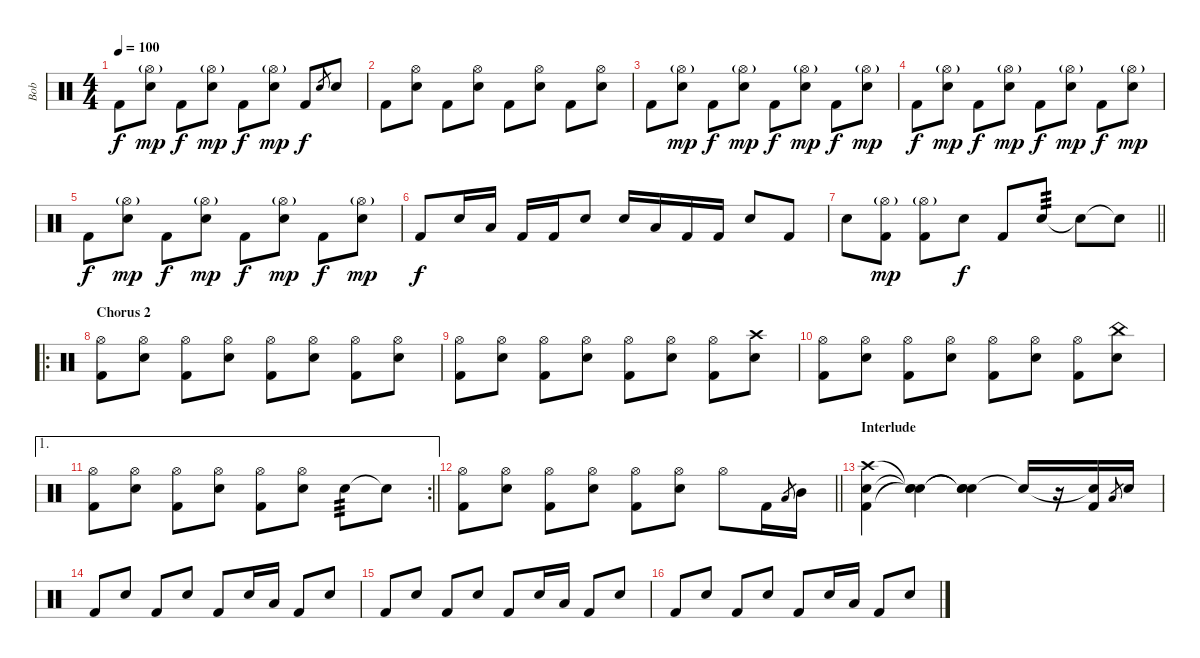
\track ("Bob" "Bob") {instrument percussion}
\staff {score}
\articulation defaults
\ts (4 4)
\tempo 100
\clef neutral
\ks c "Kick (hit) 2".8{dy f}
("Hi-Hat (open)"{g} "Electric Snare (hit)").8{dy mp} "Kick (hit) 2".8{dy f} ("Hi-Hat (open)"{g} "Electric Snare (hit)").8{dy mp} "Kick (hit) 2".8{dy f} ("Hi-Hat (open)"{g} "Electric Snare (hit)").8{dy mp} "Kick (hit) 2".8{dy f} "Electric Snare (hit)".8{gr} "Electric Snare (hit)".8 |
"Kick (hit) 2".8 ("Hi-Hat (open)" "Electric Snare (hit)").8 "Kick (hit) 2".8 ("Hi-Hat (open)" "Electric Snare (hit)").8 "Kick (hit) 2".8 ("Hi-Hat (open)" "Electric Snare (hit)").8 "Kick (hit) 2".8 ("Hi-Hat (open)" "Electric Snare (hit)").8 |
"Kick (hit) 2".8 ("Hi-Hat (open)"{g} "Electric Snare (hit)").8{dy mp} "Kick (hit) 2".8{dy f} ("Hi-Hat (open)"{g} "Electric Snare (hit)").8{dy mp} "Kick (hit) 2".8{dy f} ("Hi-Hat (open)"{g} "Electric Snare (hit)").8{dy mp} "Kick (hit) 2".8{dy f} ("Hi-Hat (open)"{g} "Electric Snare (hit)").8{dy mp} |
"Kick (hit) 2".8{dy f} ("Hi-Hat (open)"{g} "Electric Snare (hit)").8{dy mp} "Kick (hit) 2".8{dy f} ("Hi-Hat (open)"{g} "Electric Snare (hit)").8{dy mp} "Kick (hit) 2".8{dy f} ("Hi-Hat (open)"{g} "Electric Snare (hit)").8{dy mp} "Kick (hit) 2".8{dy f} ("Hi-Hat (open)"{g} "Electric Snare (hit)").8{dy mp} |
"Kick (hit) 2".8{dy f} ("Hi-Hat (open)"{g} "Electric Snare (hit)").8{dy mp} "Kick (hit) 2".8{dy f} ("Hi-Hat (open)"{g} "Electric Snare (hit)").8{dy mp} "Kick (hit) 2".8{dy f} ("Hi-Hat (open)"{g} "Electric Snare (hit)").8{dy mp} "Kick (hit) 2".8{dy f} ("Hi-Hat (open)"{g} "Electric Snare (hit)").8{dy mp} |
"Kick (hit) 2".8{dy f} "Electric Snare (hit)".16 "Low Tom (hit)".16 "Kick (hit) 2".16 "Kick (hit) 2".16 "Electric Snare (hit)".8 "Electric Snare (hit)".16 "Low Tom (hit)".16 "Kick (hit) 2".16 "Kick (hit) 2".16 "Electric Snare (hit)".8 "Kick (hit) 2".8 |
\barLineRight lightlight "Electric Snare (hit)".8
("Hi-Hat (open)"{g} "Kick (hit) 2").8{dy mp} ("Hi-Hat (open)"{g} "Kick (hit) 2").8 "Electric Snare (hit)".8{dy f} "Kick (hit) 2".8 "Electric Snare (hit)".8{tp 3} "Snare (hit)"{t}.8 "Snare (hit)"{t}.8 |
\ro
\section ("" "Chorus 2")
("Hi-Hat (open)" "Kick (hit) 2").8 ("Hi-Hat (open)" "Electric Snare (hit)").8 ("Hi-Hat (open)" "Kick (hit) 2").8 ("Hi-Hat (open)" "Electric Snare (hit)").8 ("Hi-Hat (open)" "Kick (hit) 2").8 ("Hi-Hat (open)" "Electric Snare (hit)").8 ("Hi-Hat (open)" "Kick (hit) 2").8 ("Hi-Hat (open)" "Electric Snare (hit)").8 |
("Hi-Hat (open)" "Kick (hit) 2").8 ("Hi-Hat (open)" "Electric Snare (hit)").8 ("Hi-Hat (open)" "Kick (hit) 2").8 ("Hi-Hat (open)" "Electric Snare (hit)").8 ("Hi-Hat (open)" "Kick (hit) 2").8 ("Hi-Hat (open)" "Electric Snare (hit)").8 ("Hi-Hat (open)" "Kick (hit) 2").8 ("Crash high (hit)" "Electric Snare (hit)").8 |
("Hi-Hat (open)" "Kick (hit) 2").8 ("Hi-Hat (open)" "Electric Snare (hit)").8 ("Hi-Hat (open)" "Kick (hit) 2").8 ("Hi-Hat (open)" "Electric Snare (hit)").8 ("Hi-Hat (open)" "Kick (hit) 2").8 ("Hi-Hat (open)" "Electric Snare (hit)").8 ("Hi-Hat (open)" "Kick (hit) 2").8 ("China (hit)" "Electric Snare (hit)").8 |
\ae 1
\rc 2
\barLineRight lightlight
("Hi-Hat (open)" "Kick (hit) 2").8 ("Hi-Hat (open)" "Electric Snare (hit)").8 ("Hi-Hat (open)" "Kick (hit) 2").8 ("Hi-Hat (open)" "Electric Snare (hit)").8 ("Hi-Hat (open)" "Kick (hit) 2").8 ("Hi-Hat (open)" "Electric Snare (hit)").8 "Electric Snare (hit)".8{tp 3} "Electric Snare (hit)"{t}.8 |
\barLineRight lightlight
("Hi-Hat (open)" "Kick (hit) 2").8 ("Hi-Hat (open)" "Electric Snare (hit)").8 ("Hi-Hat (open)" "Kick (hit) 2").8 ("Hi-Hat (open)" "Electric Snare (hit)").8 ("Hi-Hat (open)" "Kick (hit) 2").8 ("Hi-Hat (open)" "Electric Snare (hit)").8 "Hi-Hat (open)".8 "Kick (hit) 2".16 "Low Tom (hit)".8{gr} "Mid Tom (hit)".16 |
\section ("" "Interlude")
("Crash high (hit)" "Electric Snare (hit)" "Kick (hit) 2").4 ("Snare (hit)"{t} "Snare (hit)"{t} "Snare (hit)"{t}).4 ("Snare (hit)"{t} "Snare (hit)"{t} "Snare (hit)"{t}).4 "Snare (hit)"{t}.16 r.16 ("Snare (hit)"{t} "Kick (hit) 2").16 "Low Tom (hit)".8{gr} "Electric Snare (hit)".16 |
"Kick (hit) 2".8 "Electric Snare (hit)".8 "Kick (hit) 2".8 "Electric Snare (hit)".8 "Kick (hit) 2".8 "Electric Snare (hit)".16 "Low Tom (hit)".16 "Kick (hit) 2".8 "Electric Snare (hit)".8 |
"Kick (hit) 2".8 "Electric Snare (hit)".8 "Kick (hit) 2".8 "Electric Snare (hit)".8 "Kick (hit) 2".8 "Electric Snare (hit)".16 "Low Tom (hit)".16 "Kick (hit) 2".8 "Electric Snare (hit)".8 |
"Kick (hit) 2".8 "Electric Snare (hit)".8 "Kick (hit) 2".8 "Electric Snare (hit)".8 "Kick (hit) 2".8 "Electric Snare (hit)".16 "Low Tom (hit)".16 "Kick (hit) 2".8 "Electric Snare (hit)".8
